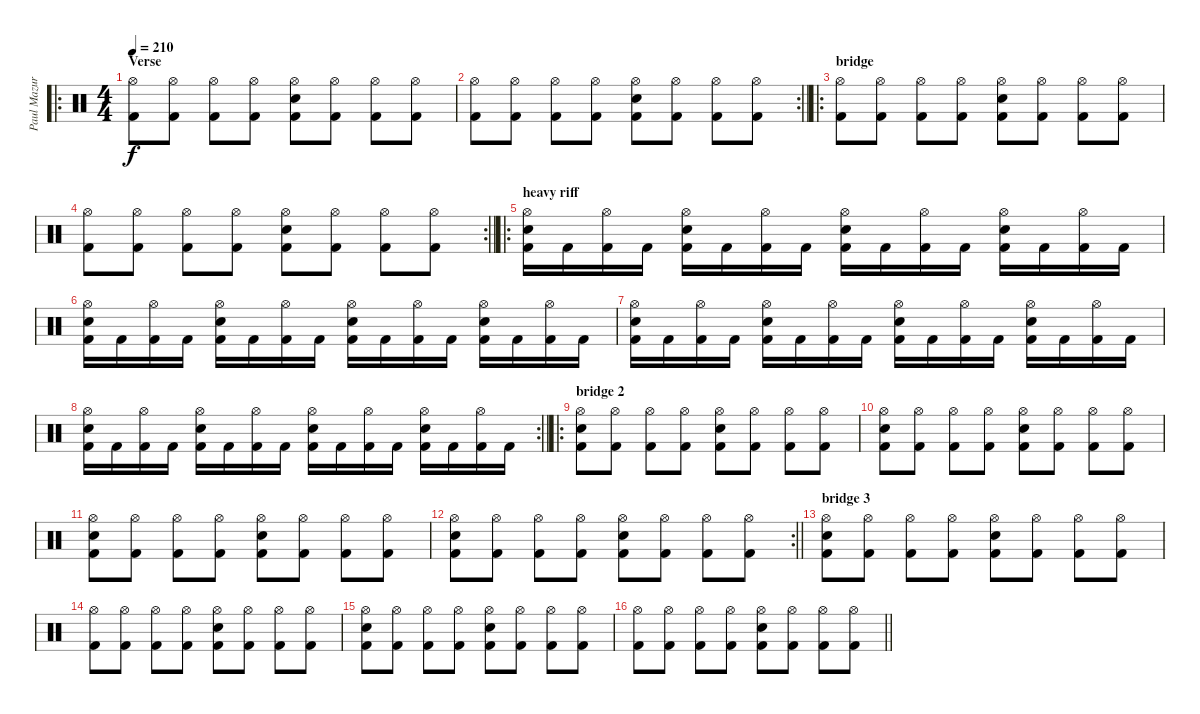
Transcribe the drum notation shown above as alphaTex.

\track ("Paul Mazurkiewicz" "Paul Mazur") {instrument percussion}
\staff {score}
\articulation defaults
\ro
\ts (4 4)
\section ("" "Verse")
\tempo 210
\clef neutral
\ks c
("Hi-Hat (open)" "Kick (hit) 2").8{dy f} ("Hi-Hat (open)" "Kick (hit) 2").8 ("Hi-Hat (open)" "Kick (hit) 2").8 ("Hi-Hat (open)" "Kick (hit) 2").8 ("Hi-Hat (open)" "Snare (hit) 2" "Kick (hit) 2").8 ("Hi-Hat (open)" "Kick (hit) 2").8 ("Hi-Hat (open)" "Kick (hit) 2").8 ("Hi-Hat (open)" "Kick (hit) 2").8 |
\rc 2
\barLineRight lightlight
("Hi-Hat (open)" "Kick (hit) 2").8 ("Hi-Hat (open)" "Kick (hit) 2").8 ("Hi-Hat (open)" "Kick (hit) 2").8 ("Hi-Hat (open)" "Kick (hit) 2").8 ("Hi-Hat (open)" "Snare (hit) 2" "Kick (hit) 2").8 ("Hi-Hat (open)" "Kick (hit) 2").8 ("Hi-Hat (open)" "Kick (hit) 2").8 ("Hi-Hat (open)" "Kick (hit) 2").8 |
\ro
\section ("" "bridge")
("Hi-Hat (open)" "Kick (hit) 2").8 ("Hi-Hat (open)" "Kick (hit) 2").8 ("Hi-Hat (open)" "Kick (hit) 2").8 ("Hi-Hat (open)" "Kick (hit) 2").8 ("Hi-Hat (open)" "Snare (hit) 2" "Kick (hit) 2").8 ("Hi-Hat (open)" "Kick (hit) 2").8 ("Hi-Hat (open)" "Kick (hit) 2").8 ("Hi-Hat (open)" "Kick (hit) 2").8 |
\rc 2
\barLineRight lightlight
("Hi-Hat (open)" "Kick (hit) 2").8 ("Hi-Hat (open)" "Kick (hit) 2").8 ("Hi-Hat (open)" "Kick (hit) 2").8 ("Hi-Hat (open)" "Kick (hit) 2").8 ("Hi-Hat (open)" "Snare (hit) 2" "Kick (hit) 2").8 ("Hi-Hat (open)" "Kick (hit) 2").8 ("Hi-Hat (open)" "Kick (hit) 2").8 ("Hi-Hat (open)" "Kick (hit) 2").8 |
\ro
\section ("" "heavy riff")
("Hi-Hat (open)" "Snare (hit) 2" "Kick (hit) 2").16 "Kick (hit) 2".16 ("Hi-Hat (open)" "Kick (hit) 2").16 "Kick (hit) 2".16 ("Hi-Hat (open)" "Snare (hit) 2" "Kick (hit) 2").16 "Kick (hit) 2".16 ("Hi-Hat (open)" "Kick (hit) 2").16 "Kick (hit) 2".16 ("Hi-Hat (open)" "Snare (hit) 2" "Kick (hit) 2").16 "Kick (hit) 2".16 ("Hi-Hat (open)" "Kick (hit) 2").16 "Kick (hit) 2".16 ("Hi-Hat (open)" "Snare (hit) 2" "Kick (hit) 2").16 "Kick (hit) 2".16 ("Hi-Hat (open)" "Kick (hit) 2").16 "Kick (hit) 2".16 |
("Hi-Hat (open)" "Snare (hit) 2" "Kick (hit) 2").16 "Kick (hit) 2".16 ("Hi-Hat (open)" "Kick (hit) 2").16 "Kick (hit) 2".16 ("Hi-Hat (open)" "Snare (hit) 2" "Kick (hit) 2").16 "Kick (hit) 2".16 ("Hi-Hat (open)" "Kick (hit) 2").16 "Kick (hit) 2".16 ("Hi-Hat (open)" "Snare (hit) 2" "Kick (hit) 2").16 "Kick (hit) 2".16 ("Hi-Hat (open)" "Kick (hit) 2").16 "Kick (hit) 2".16 ("Hi-Hat (open)" "Snare (hit) 2" "Kick (hit) 2").16 "Kick (hit) 2".16 ("Hi-Hat (open)" "Kick (hit) 2").16 "Kick (hit) 2".16 |
("Hi-Hat (open)" "Snare (hit) 2" "Kick (hit) 2").16 "Kick (hit) 2".16 ("Hi-Hat (open)" "Kick (hit) 2").16 "Kick (hit) 2".16 ("Hi-Hat (open)" "Snare (hit) 2" "Kick (hit) 2").16 "Kick (hit) 2".16 ("Hi-Hat (open)" "Kick (hit) 2").16 "Kick (hit) 2".16 ("Hi-Hat (open)" "Snare (hit) 2" "Kick (hit) 2").16 "Kick (hit) 2".16 ("Hi-Hat (open)" "Kick (hit) 2").16 "Kick (hit) 2".16 ("Hi-Hat (open)" "Snare (hit) 2" "Kick (hit) 2").16 "Kick (hit) 2".16 ("Hi-Hat (open)" "Kick (hit) 2").16 "Kick (hit) 2".16 |
\rc 2
\barLineRight lightlight
("Hi-Hat (open)" "Snare (hit) 2" "Kick (hit) 2").16 "Kick (hit) 2".16 ("Hi-Hat (open)" "Kick (hit) 2").16 "Kick (hit) 2".16 ("Hi-Hat (open)" "Snare (hit) 2" "Kick (hit) 2").16 "Kick (hit) 2".16 ("Hi-Hat (open)" "Kick (hit) 2").16 "Kick (hit) 2".16 ("Hi-Hat (open)" "Snare (hit) 2" "Kick (hit) 2").16 "Kick (hit) 2".16 ("Hi-Hat (open)" "Kick (hit) 2").16 "Kick (hit) 2".16 ("Hi-Hat (open)" "Snare (hit) 2" "Kick (hit) 2").16 "Kick (hit) 2".16 ("Hi-Hat (open)" "Kick (hit) 2").16 "Kick (hit) 2".16 |
\ro
\section ("" "bridge 2")
("Hi-Hat (open)" "Snare (hit) 2" "Kick (hit) 2").8 ("Hi-Hat (open)" "Kick (hit) 2").8 ("Hi-Hat (open)" "Kick (hit) 2").8 ("Hi-Hat (open)" "Kick (hit) 2").8 ("Hi-Hat (open)" "Snare (hit) 2" "Kick (hit) 2").8 ("Hi-Hat (open)" "Kick (hit) 2").8 ("Hi-Hat (open)" "Kick (hit) 2").8 ("Hi-Hat (open)" "Kick (hit) 2").8 |
("Hi-Hat (open)" "Snare (hit) 2" "Kick (hit) 2").8 ("Hi-Hat (open)" "Kick (hit) 2").8 ("Hi-Hat (open)" "Kick (hit) 2").8 ("Hi-Hat (open)" "Kick (hit) 2").8 ("Hi-Hat (open)" "Snare (hit) 2" "Kick (hit) 2").8 ("Hi-Hat (open)" "Kick (hit) 2").8 ("Hi-Hat (open)" "Kick (hit) 2").8 ("Hi-Hat (open)" "Kick (hit) 2").8 |
("Hi-Hat (open)" "Snare (hit) 2" "Kick (hit) 2").8 ("Hi-Hat (open)" "Kick (hit) 2").8 ("Hi-Hat (open)" "Kick (hit) 2").8 ("Hi-Hat (open)" "Kick (hit) 2").8 ("Hi-Hat (open)" "Snare (hit) 2" "Kick (hit) 2").8 ("Hi-Hat (open)" "Kick (hit) 2").8 ("Hi-Hat (open)" "Kick (hit) 2").8 ("Hi-Hat (open)" "Kick (hit) 2").8 |
\rc 2
\barLineRight lightlight
("Hi-Hat (open)" "Snare (hit) 2" "Kick (hit) 2").8 ("Hi-Hat (open)" "Kick (hit) 2").8 ("Hi-Hat (open)" "Kick (hit) 2").8 ("Hi-Hat (open)" "Kick (hit) 2").8 ("Hi-Hat (open)" "Snare (hit) 2" "Kick (hit) 2").8 ("Hi-Hat (open)" "Kick (hit) 2").8 ("Hi-Hat (open)" "Kick (hit) 2").8 ("Hi-Hat (open)" "Kick (hit) 2").8 |
\section ("" "bridge 3")
("Hi-Hat (open)" "Snare (hit) 2" "Kick (hit) 2").8 ("Hi-Hat (open)" "Kick (hit) 2").8 ("Hi-Hat (open)" "Kick (hit) 2").8 ("Hi-Hat (open)" "Kick (hit) 2").8 ("Hi-Hat (open)" "Snare (hit) 2" "Kick (hit) 2").8 ("Hi-Hat (open)" "Kick (hit) 2").8 ("Hi-Hat (open)" "Kick (hit) 2").8 ("Hi-Hat (open)" "Kick (hit) 2").8 |
("Hi-Hat (open)" "Kick (hit) 2").8 ("Hi-Hat (open)" "Kick (hit) 2").8 ("Hi-Hat (open)" "Kick (hit) 2").8 ("Hi-Hat (open)" "Kick (hit) 2").8 ("Hi-Hat (open)" "Snare (hit) 2" "Kick (hit) 2").8 ("Hi-Hat (open)" "Kick (hit) 2").8 ("Hi-Hat (open)" "Kick (hit) 2").8 ("Hi-Hat (open)" "Kick (hit) 2").8 |
("Hi-Hat (open)" "Snare (hit) 2" "Kick (hit) 2").8 ("Hi-Hat (open)" "Kick (hit) 2").8 ("Hi-Hat (open)" "Kick (hit) 2").8 ("Hi-Hat (open)" "Kick (hit) 2").8 ("Hi-Hat (open)" "Snare (hit) 2" "Kick (hit) 2").8 ("Hi-Hat (open)" "Kick (hit) 2").8 ("Hi-Hat (open)" "Kick (hit) 2").8 ("Hi-Hat (open)" "Kick (hit) 2").8 |
\barLineRight lightlight
("Hi-Hat (open)" "Kick (hit) 2").8 ("Hi-Hat (open)" "Kick (hit) 2").8 ("Hi-Hat (open)" "Kick (hit) 2").8 ("Hi-Hat (open)" "Kick (hit) 2").8 ("Hi-Hat (open)" "Snare (hit) 2" "Kick (hit) 2").8 ("Hi-Hat (open)" "Kick (hit) 2").8 ("Hi-Hat (open)" "Kick (hit) 2").8 ("Hi-Hat (open)" "Kick (hit) 2").8
